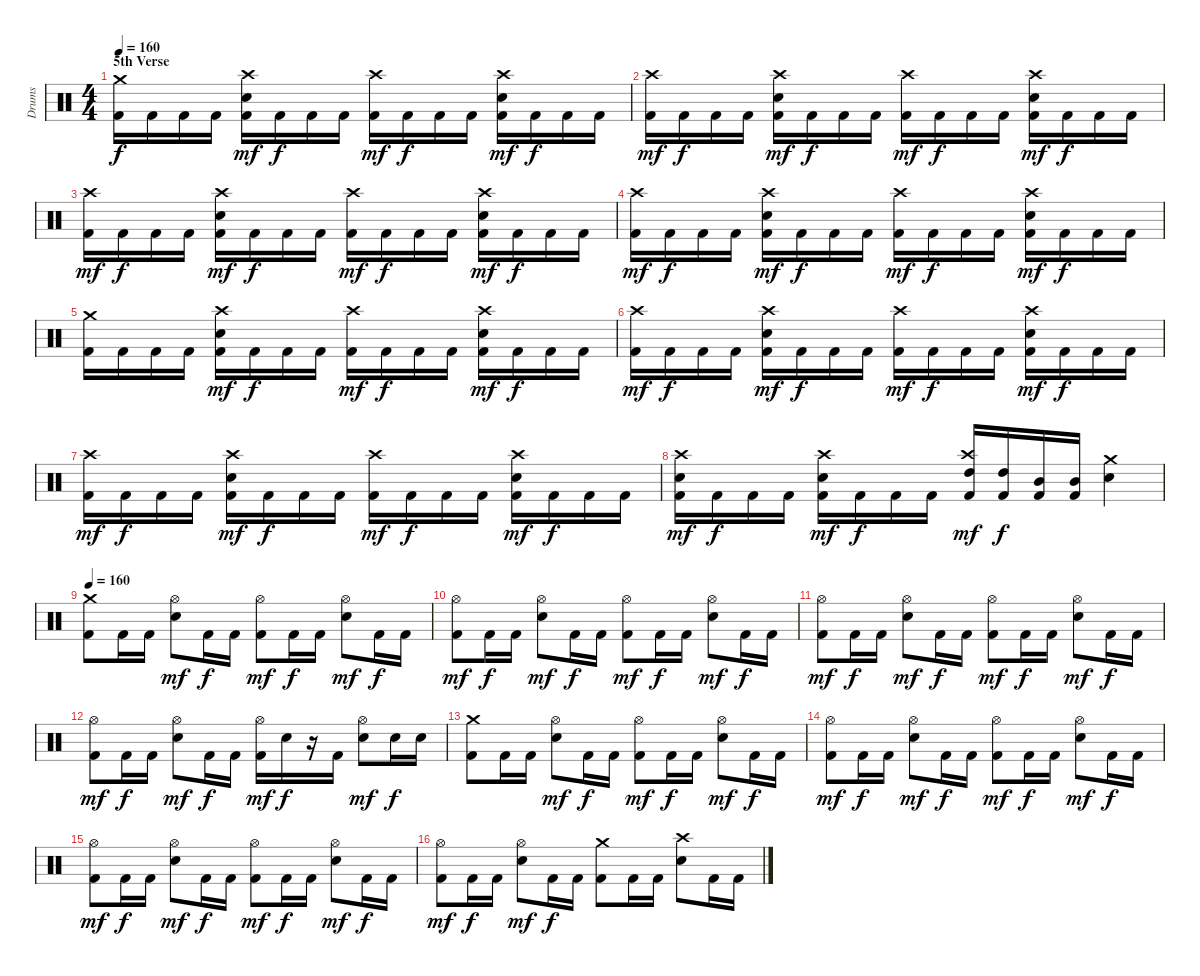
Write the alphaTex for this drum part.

\track ("Drums" "Drums") {instrument percussion}
\staff {score}
\articulation defaults
\ts (4 4)
\section ("" "5th Verse")
\tempo 160
\clef neutral
\ks c
("Kick (hit) 2" "Crash medium (hit)").16{dy f} "Kick (hit) 2".16 "Kick (hit) 2".16 "Kick (hit) 2".16 ("Kick (hit) 2" "Electric Snare (hit)" "Crash high (hit)").16{dy mf} "Kick (hit) 2".16{dy f} "Kick (hit) 2".16 "Kick (hit) 2".16 ("Kick (hit) 2" "Crash high (hit)").16{dy mf} "Kick (hit) 2".16{dy f} "Kick (hit) 2".16 "Kick (hit) 2".16 ("Kick (hit) 2" "Electric Snare (hit)" "Crash high (hit)").16{dy mf} "Kick (hit) 2".16{dy f} "Kick (hit) 2".16 "Kick (hit) 2".16 |
("Kick (hit) 2" "Crash high (hit)").16{dy mf} "Kick (hit) 2".16{dy f} "Kick (hit) 2".16 "Kick (hit) 2".16 ("Kick (hit) 2" "Electric Snare (hit)" "Crash high (hit)").16{dy mf} "Kick (hit) 2".16{dy f} "Kick (hit) 2".16 "Kick (hit) 2".16 ("Kick (hit) 2" "Crash high (hit)").16{dy mf} "Kick (hit) 2".16{dy f} "Kick (hit) 2".16 "Kick (hit) 2".16 ("Kick (hit) 2" "Electric Snare (hit)" "Crash high (hit)").16{dy mf} "Kick (hit) 2".16{dy f} "Kick (hit) 2".16 "Kick (hit) 2".16 |
("Kick (hit) 2" "Crash high (hit)").16{dy mf} "Kick (hit) 2".16{dy f} "Kick (hit) 2".16 "Kick (hit) 2".16 ("Kick (hit) 2" "Electric Snare (hit)" "Crash high (hit)").16{dy mf} "Kick (hit) 2".16{dy f} "Kick (hit) 2".16 "Kick (hit) 2".16 ("Kick (hit) 2" "Crash high (hit)").16{dy mf} "Kick (hit) 2".16{dy f} "Kick (hit) 2".16 "Kick (hit) 2".16 ("Kick (hit) 2" "Electric Snare (hit)" "Crash high (hit)").16{dy mf} "Kick (hit) 2".16{dy f} "Kick (hit) 2".16 "Kick (hit) 2".16 |
("Kick (hit) 2" "Crash high (hit)").16{dy mf} "Kick (hit) 2".16{dy f} "Kick (hit) 2".16 "Kick (hit) 2".16 ("Kick (hit) 2" "Electric Snare (hit)" "Crash high (hit)").16{dy mf} "Kick (hit) 2".16{dy f} "Kick (hit) 2".16 "Kick (hit) 2".16 ("Kick (hit) 2" "Crash high (hit)").16{dy mf} "Kick (hit) 2".16{dy f} "Kick (hit) 2".16 "Kick (hit) 2".16 ("Kick (hit) 2" "Electric Snare (hit)" "Crash high (hit)").16{dy mf} "Kick (hit) 2".16{dy f} "Kick (hit) 2".16 "Kick (hit) 2".16 |
("Kick (hit) 2" "Crash medium (hit)").16 "Kick (hit) 2".16 "Kick (hit) 2".16 "Kick (hit) 2".16 ("Kick (hit) 2" "Electric Snare (hit)" "Crash high (hit)").16{dy mf} "Kick (hit) 2".16{dy f} "Kick (hit) 2".16 "Kick (hit) 2".16 ("Kick (hit) 2" "Crash high (hit)").16{dy mf} "Kick (hit) 2".16{dy f} "Kick (hit) 2".16 "Kick (hit) 2".16 ("Kick (hit) 2" "Electric Snare (hit)" "Crash high (hit)").16{dy mf} "Kick (hit) 2".16{dy f} "Kick (hit) 2".16 "Kick (hit) 2".16 |
("Kick (hit) 2" "Crash high (hit)").16{dy mf} "Kick (hit) 2".16{dy f} "Kick (hit) 2".16 "Kick (hit) 2".16 ("Kick (hit) 2" "Electric Snare (hit)" "Crash high (hit)").16{dy mf} "Kick (hit) 2".16{dy f} "Kick (hit) 2".16 "Kick (hit) 2".16 ("Kick (hit) 2" "Crash high (hit)").16{dy mf} "Kick (hit) 2".16{dy f} "Kick (hit) 2".16 "Kick (hit) 2".16 ("Kick (hit) 2" "Electric Snare (hit)" "Crash high (hit)").16{dy mf} "Kick (hit) 2".16{dy f} "Kick (hit) 2".16 "Kick (hit) 2".16 |
("Kick (hit) 2" "Crash high (hit)").16{dy mf} "Kick (hit) 2".16{dy f} "Kick (hit) 2".16 "Kick (hit) 2".16 ("Kick (hit) 2" "Electric Snare (hit)" "Crash high (hit)").16{dy mf} "Kick (hit) 2".16{dy f} "Kick (hit) 2".16 "Kick (hit) 2".16 ("Kick (hit) 2" "Crash high (hit)").16{dy mf} "Kick (hit) 2".16{dy f} "Kick (hit) 2".16 "Kick (hit) 2".16 ("Kick (hit) 2" "Electric Snare (hit)" "Crash high (hit)").16{dy mf} "Kick (hit) 2".16{dy f} "Kick (hit) 2".16 "Kick (hit) 2".16 |
("Kick (hit) 2" "Electric Snare (hit)" "Crash high (hit)").16{dy mf} "Kick (hit) 2".16{dy f} "Kick (hit) 2".16 "Kick (hit) 2".16 ("Kick (hit) 2" "Electric Snare (hit)" "Crash high (hit)").16{dy mf} "Kick (hit) 2".16{dy f} "Kick (hit) 2".16 "Kick (hit) 2".16 ("Kick (hit) 2" "High Tom (hit)" "Crash high (hit)").16{dy mf} ("Kick (hit) 2" "High Tom (hit)").16{dy f} ("Kick (hit) 2" "Mid Tom (hit)").16 ("Kick (hit) 2" "Mid Tom (hit)").16 ("Electric Snare (hit)" "Crash medium (hit)").4 |
\tempo 160
("Kick (hit) 2" "Crash medium (hit)").8 "Kick (hit) 2".16 "Kick (hit) 2".16 ("Electric Snare (hit)" "Hi-Hat (open)").8{dy mf} "Kick (hit) 2".16{dy f} "Kick (hit) 2".16 ("Kick (hit) 2" "Hi-Hat (open)").8{dy mf} "Kick (hit) 2".16{dy f} "Kick (hit) 2".16 ("Electric Snare (hit)" "Hi-Hat (open)").8{dy mf} "Kick (hit) 2".16{dy f} "Kick (hit) 2".16 |
("Kick (hit) 2" "Hi-Hat (open)").8{dy mf} "Kick (hit) 2".16{dy f} "Kick (hit) 2".16 ("Electric Snare (hit)" "Hi-Hat (open)").8{dy mf} "Kick (hit) 2".16{dy f} "Kick (hit) 2".16 ("Kick (hit) 2" "Hi-Hat (open)").8{dy mf} "Kick (hit) 2".16{dy f} "Kick (hit) 2".16 ("Electric Snare (hit)" "Hi-Hat (open)").8{dy mf} "Kick (hit) 2".16{dy f} "Kick (hit) 2".16 |
("Kick (hit) 2" "Hi-Hat (open)").8{dy mf} "Kick (hit) 2".16{dy f} "Kick (hit) 2".16 ("Electric Snare (hit)" "Hi-Hat (open)").8{dy mf} "Kick (hit) 2".16{dy f} "Kick (hit) 2".16 ("Kick (hit) 2" "Hi-Hat (open)").8{dy mf} "Kick (hit) 2".16{dy f} "Kick (hit) 2".16 ("Electric Snare (hit)" "Hi-Hat (open)").8{dy mf} "Kick (hit) 2".16{dy f} "Kick (hit) 2".16 |
("Kick (hit) 2" "Hi-Hat (open)").8{dy mf} "Kick (hit) 2".16{dy f} "Kick (hit) 2".16 ("Electric Snare (hit)" "Hi-Hat (open)").8{dy mf} "Kick (hit) 2".16{dy f} "Kick (hit) 2".16 ("Kick (hit) 2" "Hi-Hat (open)").16{dy mf} "Electric Snare (hit)".16{dy f} r.16 "Kick (hit) 2".16 ("Electric Snare (hit)" "Hi-Hat (open)").8{dy mf} "Electric Snare (hit)".16{dy f} "Electric Snare (hit)".16 |
("Kick (hit) 2" "Crash medium (hit)").8 "Kick (hit) 2".16 "Kick (hit) 2".16 ("Electric Snare (hit)" "Hi-Hat (open)").8{dy mf} "Kick (hit) 2".16{dy f} "Kick (hit) 2".16 ("Kick (hit) 2" "Hi-Hat (open)").8{dy mf} "Kick (hit) 2".16{dy f} "Kick (hit) 2".16 ("Electric Snare (hit)" "Hi-Hat (open)").8{dy mf} "Kick (hit) 2".16{dy f} "Kick (hit) 2".16 |
("Kick (hit) 2" "Hi-Hat (open)").8{dy mf} "Kick (hit) 2".16{dy f} "Kick (hit) 2".16 ("Electric Snare (hit)" "Hi-Hat (open)").8{dy mf} "Kick (hit) 2".16{dy f} "Kick (hit) 2".16 ("Kick (hit) 2" "Hi-Hat (open)").8{dy mf} "Kick (hit) 2".16{dy f} "Kick (hit) 2".16 ("Electric Snare (hit)" "Hi-Hat (open)").8{dy mf} "Kick (hit) 2".16{dy f} "Kick (hit) 2".16 |
("Kick (hit) 2" "Hi-Hat (open)").8{dy mf} "Kick (hit) 2".16{dy f} "Kick (hit) 2".16 ("Electric Snare (hit)" "Hi-Hat (open)").8{dy mf} "Kick (hit) 2".16{dy f} "Kick (hit) 2".16 ("Kick (hit) 2" "Hi-Hat (open)").8{dy mf} "Kick (hit) 2".16{dy f} "Kick (hit) 2".16 ("Electric Snare (hit)" "Hi-Hat (open)").8{dy mf} "Kick (hit) 2".16{dy f} "Kick (hit) 2".16 |
("Kick (hit) 2" "Hi-Hat (open)").8{dy mf} "Kick (hit) 2".16{dy f} "Kick (hit) 2".16 ("Electric Snare (hit)" "Hi-Hat (open)").8{dy mf} "Kick (hit) 2".16{dy f} "Kick (hit) 2".16 ("Kick (hit) 2" "Crash medium (hit)").8 "Kick (hit) 2".16 "Kick (hit) 2".16 ("Electric Snare (hit)" "Crash high (hit)").8 "Kick (hit) 2".16 "Kick (hit) 2".16
